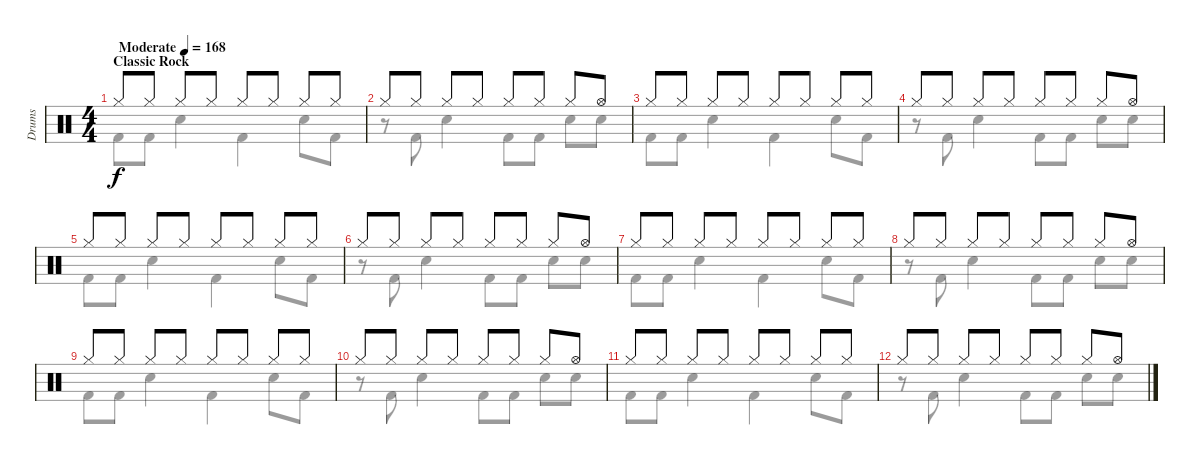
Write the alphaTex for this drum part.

\track ("Drums" "Drums") {instrument percussion}
\staff {score}
\articulation defaults
\voice
\ts (4 4)
\section ("" "Classic Rock")
\tempo (168 "Moderate")
\clef neutral
\ks c "Hi-Hat (closed)".8{dy f volume 12} "Hi-Hat (closed)".8 "Hi-Hat (closed)".8 "Hi-Hat (closed)".8 "Hi-Hat (closed)".8 "Hi-Hat (closed)".8 "Hi-Hat (closed)".8 "Hi-Hat (closed)".8
|
"Hi-Hat (closed)".8 "Hi-Hat (closed)".8 "Hi-Hat (closed)".8 "Hi-Hat (closed)".8 "Hi-Hat (closed)".8 "Hi-Hat (closed)".8 "Hi-Hat (closed)".8 "Hi-Hat (open)".8 |
"Hi-Hat (closed)".8 "Hi-Hat (closed)".8 "Hi-Hat (closed)".8 "Hi-Hat (closed)".8 "Hi-Hat (closed)".8 "Hi-Hat (closed)".8 "Hi-Hat (closed)".8 "Hi-Hat (closed)".8 |
"Hi-Hat (closed)".8 "Hi-Hat (closed)".8 "Hi-Hat (closed)".8 "Hi-Hat (closed)".8 "Hi-Hat (closed)".8 "Hi-Hat (closed)".8 "Hi-Hat (closed)".8 "Hi-Hat (open)".8 |
"Hi-Hat (closed)".8 "Hi-Hat (closed)".8 "Hi-Hat (closed)".8 "Hi-Hat (closed)".8 "Hi-Hat (closed)".8 "Hi-Hat (closed)".8 "Hi-Hat (closed)".8 "Hi-Hat (closed)".8 |
"Hi-Hat (closed)".8 "Hi-Hat (closed)".8 "Hi-Hat (closed)".8 "Hi-Hat (closed)".8 "Hi-Hat (closed)".8 "Hi-Hat (closed)".8 "Hi-Hat (closed)".8 "Hi-Hat (open)".8 |
"Hi-Hat (closed)".8 "Hi-Hat (closed)".8 "Hi-Hat (closed)".8 "Hi-Hat (closed)".8 "Hi-Hat (closed)".8 "Hi-Hat (closed)".8 "Hi-Hat (closed)".8 "Hi-Hat (closed)".8 |
"Hi-Hat (closed)".8 "Hi-Hat (closed)".8 "Hi-Hat (closed)".8 "Hi-Hat (closed)".8 "Hi-Hat (closed)".8 "Hi-Hat (closed)".8 "Hi-Hat (closed)".8 "Hi-Hat (open)".8 |
"Hi-Hat (closed)".8 "Hi-Hat (closed)".8 "Hi-Hat (closed)".8 "Hi-Hat (closed)".8 "Hi-Hat (closed)".8 "Hi-Hat (closed)".8 "Hi-Hat (closed)".8 "Hi-Hat (closed)".8 |
"Hi-Hat (closed)".8 "Hi-Hat (closed)".8 "Hi-Hat (closed)".8 "Hi-Hat (closed)".8 "Hi-Hat (closed)".8 "Hi-Hat (closed)".8 "Hi-Hat (closed)".8 "Hi-Hat (open)".8 |
"Hi-Hat (closed)".8 "Hi-Hat (closed)".8 "Hi-Hat (closed)".8 "Hi-Hat (closed)".8 "Hi-Hat (closed)".8 "Hi-Hat (closed)".8 "Hi-Hat (closed)".8 "Hi-Hat (closed)".8 |
"Hi-Hat (closed)".8 "Hi-Hat (closed)".8 "Hi-Hat (closed)".8 "Hi-Hat (closed)".8 "Hi-Hat (closed)".8 "Hi-Hat (closed)".8 "Hi-Hat (closed)".8 "Hi-Hat (open)".8
\voice
\clef neutral
\ottava regular
\simile none
\ks c "Kick (hit) 2".8{dy f} "Kick (hit) 2".8 "Electric Snare (hit)".4 "Kick (hit) 2".4 "Electric Snare (hit)".8 "Kick (hit) 2".8
|
r.8 "Kick (hit) 2".8 "Electric Snare (hit)".4 "Kick (hit) 2".8 "Kick (hit) 2".8 "Electric Snare (hit)".8 "Electric Snare (hit)".8 |
"Kick (hit) 2".8 "Kick (hit) 2".8 "Electric Snare (hit)".4 "Kick (hit) 2".4 "Electric Snare (hit)".8 "Kick (hit) 2".8 |
r.8 "Kick (hit) 2".8 "Electric Snare (hit)".4 "Kick (hit) 2".8 "Kick (hit) 2".8 "Electric Snare (hit)".8 "Electric Snare (hit)".8 |
"Kick (hit) 2".8 "Kick (hit) 2".8 "Electric Snare (hit)".4 "Kick (hit) 2".4 "Electric Snare (hit)".8 "Kick (hit) 2".8 |
r.8 "Kick (hit) 2".8 "Electric Snare (hit)".4 "Kick (hit) 2".8 "Kick (hit) 2".8 "Electric Snare (hit)".8 "Electric Snare (hit)".8 |
"Kick (hit) 2".8 "Kick (hit) 2".8 "Electric Snare (hit)".4 "Kick (hit) 2".4 "Electric Snare (hit)".8 "Kick (hit) 2".8 |
r.8 "Kick (hit) 2".8 "Electric Snare (hit)".4 "Kick (hit) 2".8 "Kick (hit) 2".8 "Electric Snare (hit)".8 "Electric Snare (hit)".8 |
"Kick (hit) 2".8 "Kick (hit) 2".8 "Electric Snare (hit)".4 "Kick (hit) 2".4 "Electric Snare (hit)".8 "Kick (hit) 2".8 |
r.8 "Kick (hit) 2".8 "Electric Snare (hit)".4 "Kick (hit) 2".8 "Kick (hit) 2".8 "Electric Snare (hit)".8 "Electric Snare (hit)".8 |
"Kick (hit) 2".8 "Kick (hit) 2".8 "Electric Snare (hit)".4 "Kick (hit) 2".4 "Electric Snare (hit)".8 "Kick (hit) 2".8 |
r.8 "Kick (hit) 2".8 "Electric Snare (hit)".4 "Kick (hit) 2".8 "Kick (hit) 2".8 "Electric Snare (hit)".8 "Electric Snare (hit)".8
